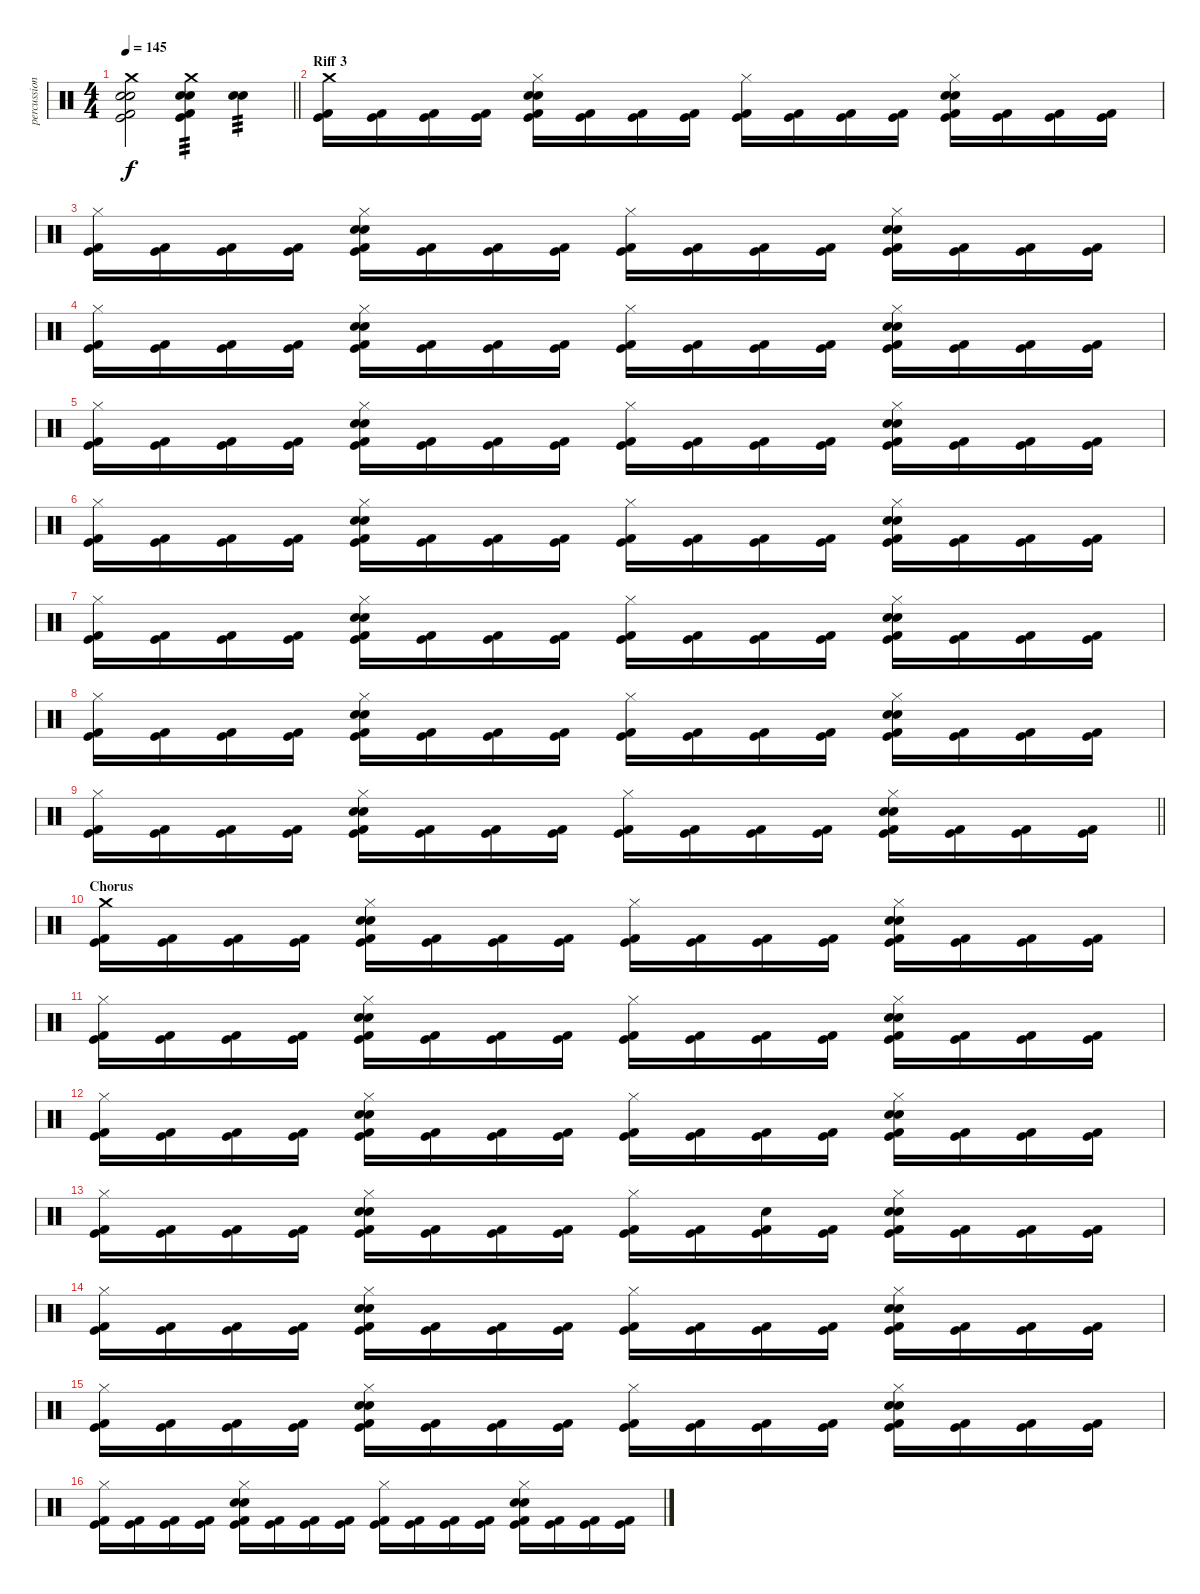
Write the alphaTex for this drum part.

\track ("percussion" "percussion") {instrument percussion}
\staff {score}
\articulation defaults
\ts (4 4)
\tempo 145
\clef neutral
\barLineRight lightlight
\ks c
("Crash medium (hit)" "Electric Snare (hit)" "Snare (hit) 2" "Kick (hit) 2" "Kick (hit)").2{dy f} ("Crash medium (hit)" "Electric Snare (hit)" "Snare (hit) 2" "Kick (hit)" "Kick (hit) 2").4{tp 3} ("Electric Snare (hit)" "Snare (hit) 2").4{tp 3} |
\section ("" "Riff 3")
("Crash medium (hit)" "Kick (hit) 2" "Kick (hit)").16 ("Kick (hit) 2" "Kick (hit)").16 ("Kick (hit) 2" "Kick (hit)").16 ("Kick (hit) 2" "Kick (hit)").16 ("Hi-Hat (closed)" "Electric Snare (hit)" "Snare (hit) 2" "Kick (hit) 2" "Kick (hit)").16 ("Kick (hit) 2" "Kick (hit)").16 ("Kick (hit) 2" "Kick (hit)").16 ("Kick (hit) 2" "Kick (hit)").16 ("Hi-Hat (closed)" "Kick (hit) 2" "Kick (hit)").16 ("Kick (hit) 2" "Kick (hit)").16 ("Kick (hit) 2" "Kick (hit)").16 ("Kick (hit) 2" "Kick (hit)").16 ("Hi-Hat (closed)" "Electric Snare (hit)" "Snare (hit) 2" "Kick (hit) 2" "Kick (hit)").16 ("Kick (hit) 2" "Kick (hit)").16 ("Kick (hit) 2" "Kick (hit)").16 ("Kick (hit) 2" "Kick (hit)").16 |
("Hi-Hat (closed)" "Kick (hit) 2" "Kick (hit)").16 ("Kick (hit) 2" "Kick (hit)").16 ("Kick (hit) 2" "Kick (hit)").16 ("Kick (hit) 2" "Kick (hit)").16 ("Hi-Hat (closed)" "Electric Snare (hit)" "Snare (hit) 2" "Kick (hit) 2" "Kick (hit)").16 ("Kick (hit) 2" "Kick (hit)").16 ("Kick (hit) 2" "Kick (hit)").16 ("Kick (hit) 2" "Kick (hit)").16 ("Hi-Hat (closed)" "Kick (hit) 2" "Kick (hit)").16 ("Kick (hit) 2" "Kick (hit)").16 ("Kick (hit) 2" "Kick (hit)").16 ("Kick (hit) 2" "Kick (hit)").16 ("Hi-Hat (closed)" "Electric Snare (hit)" "Snare (hit) 2" "Kick (hit) 2" "Kick (hit)").16 ("Kick (hit) 2" "Kick (hit)").16 ("Kick (hit) 2" "Kick (hit)").16 ("Kick (hit) 2" "Kick (hit)").16 |
("Hi-Hat (closed)" "Kick (hit) 2" "Kick (hit)").16 ("Kick (hit) 2" "Kick (hit)").16 ("Kick (hit) 2" "Kick (hit)").16 ("Kick (hit) 2" "Kick (hit)").16 ("Hi-Hat (closed)" "Electric Snare (hit)" "Snare (hit) 2" "Kick (hit) 2" "Kick (hit)").16 ("Kick (hit) 2" "Kick (hit)").16 ("Kick (hit) 2" "Kick (hit)").16 ("Kick (hit) 2" "Kick (hit)").16 ("Hi-Hat (closed)" "Kick (hit) 2" "Kick (hit)").16 ("Kick (hit) 2" "Kick (hit)").16 ("Kick (hit) 2" "Kick (hit)").16 ("Kick (hit) 2" "Kick (hit)").16 ("Hi-Hat (closed)" "Electric Snare (hit)" "Snare (hit) 2" "Kick (hit) 2" "Kick (hit)").16 ("Kick (hit) 2" "Kick (hit)").16 ("Kick (hit) 2" "Kick (hit)").16 ("Kick (hit) 2" "Kick (hit)").16 |
("Hi-Hat (closed)" "Kick (hit) 2" "Kick (hit)").16 ("Kick (hit) 2" "Kick (hit)").16 ("Kick (hit) 2" "Kick (hit)").16 ("Kick (hit) 2" "Kick (hit)").16 ("Hi-Hat (closed)" "Electric Snare (hit)" "Snare (hit) 2" "Kick (hit) 2" "Kick (hit)").16 ("Kick (hit) 2" "Kick (hit)").16 ("Kick (hit) 2" "Kick (hit)").16 ("Kick (hit) 2" "Kick (hit)").16 ("Hi-Hat (closed)" "Kick (hit) 2" "Kick (hit)").16 ("Kick (hit) 2" "Kick (hit)").16 ("Kick (hit) 2" "Kick (hit)").16 ("Kick (hit) 2" "Kick (hit)").16 ("Hi-Hat (closed)" "Electric Snare (hit)" "Snare (hit) 2" "Kick (hit) 2" "Kick (hit)").16 ("Kick (hit) 2" "Kick (hit)").16 ("Kick (hit) 2" "Kick (hit)").16 ("Kick (hit) 2" "Kick (hit)").16 |
("Hi-Hat (closed)" "Kick (hit) 2" "Kick (hit)").16 ("Kick (hit) 2" "Kick (hit)").16 ("Kick (hit) 2" "Kick (hit)").16 ("Kick (hit) 2" "Kick (hit)").16 ("Hi-Hat (closed)" "Electric Snare (hit)" "Snare (hit) 2" "Kick (hit) 2" "Kick (hit)").16 ("Kick (hit) 2" "Kick (hit)").16 ("Kick (hit) 2" "Kick (hit)").16 ("Kick (hit) 2" "Kick (hit)").16 ("Hi-Hat (closed)" "Kick (hit) 2" "Kick (hit)").16 ("Kick (hit) 2" "Kick (hit)").16 ("Kick (hit) 2" "Kick (hit)").16 ("Kick (hit) 2" "Kick (hit)").16 ("Hi-Hat (closed)" "Electric Snare (hit)" "Snare (hit) 2" "Kick (hit) 2" "Kick (hit)").16 ("Kick (hit) 2" "Kick (hit)").16 ("Kick (hit) 2" "Kick (hit)").16 ("Kick (hit) 2" "Kick (hit)").16 |
("Hi-Hat (closed)" "Kick (hit) 2" "Kick (hit)").16 ("Kick (hit) 2" "Kick (hit)").16 ("Kick (hit) 2" "Kick (hit)").16 ("Kick (hit) 2" "Kick (hit)").16 ("Hi-Hat (closed)" "Electric Snare (hit)" "Snare (hit) 2" "Kick (hit) 2" "Kick (hit)").16 ("Kick (hit) 2" "Kick (hit)").16 ("Kick (hit) 2" "Kick (hit)").16 ("Kick (hit) 2" "Kick (hit)").16 ("Hi-Hat (closed)" "Kick (hit) 2" "Kick (hit)").16 ("Kick (hit) 2" "Kick (hit)").16 ("Kick (hit) 2" "Kick (hit)").16 ("Kick (hit) 2" "Kick (hit)").16 ("Hi-Hat (closed)" "Electric Snare (hit)" "Snare (hit) 2" "Kick (hit) 2" "Kick (hit)").16 ("Kick (hit) 2" "Kick (hit)").16 ("Kick (hit) 2" "Kick (hit)").16 ("Kick (hit) 2" "Kick (hit)").16 |
("Hi-Hat (closed)" "Kick (hit) 2" "Kick (hit)").16 ("Kick (hit) 2" "Kick (hit)").16 ("Kick (hit) 2" "Kick (hit)").16 ("Kick (hit) 2" "Kick (hit)").16 ("Hi-Hat (closed)" "Electric Snare (hit)" "Snare (hit) 2" "Kick (hit) 2" "Kick (hit)").16 ("Kick (hit) 2" "Kick (hit)").16 ("Kick (hit) 2" "Kick (hit)").16 ("Kick (hit) 2" "Kick (hit)").16 ("Hi-Hat (closed)" "Kick (hit) 2" "Kick (hit)").16 ("Kick (hit) 2" "Kick (hit)").16 ("Kick (hit) 2" "Kick (hit)").16 ("Kick (hit) 2" "Kick (hit)").16 ("Hi-Hat (closed)" "Electric Snare (hit)" "Snare (hit) 2" "Kick (hit) 2" "Kick (hit)").16 ("Kick (hit) 2" "Kick (hit)").16 ("Kick (hit) 2" "Kick (hit)").16 ("Kick (hit) 2" "Kick (hit)").16 |
\barLineRight lightlight
("Hi-Hat (closed)" "Kick (hit) 2" "Kick (hit)").16 ("Kick (hit) 2" "Kick (hit)").16 ("Kick (hit) 2" "Kick (hit)").16 ("Kick (hit) 2" "Kick (hit)").16 ("Hi-Hat (closed)" "Electric Snare (hit)" "Snare (hit) 2" "Kick (hit) 2" "Kick (hit)").16 ("Kick (hit) 2" "Kick (hit)").16 ("Kick (hit) 2" "Kick (hit)").16 ("Kick (hit) 2" "Kick (hit)").16 ("Hi-Hat (closed)" "Kick (hit) 2" "Kick (hit)").16 ("Kick (hit) 2" "Kick (hit)").16 ("Kick (hit) 2" "Kick (hit)").16 ("Kick (hit) 2" "Kick (hit)").16 ("Hi-Hat (closed)" "Electric Snare (hit)" "Snare (hit) 2" "Kick (hit) 2" "Kick (hit)").16 ("Kick (hit) 2" "Kick (hit)").16 ("Kick (hit) 2" "Kick (hit)").16 ("Kick (hit) 2" "Kick (hit)").16 |
\section ("" "Chorus")
("Crash medium (hit)" "Kick (hit) 2" "Kick (hit)").16 ("Kick (hit) 2" "Kick (hit)").16 ("Kick (hit) 2" "Kick (hit)").16 ("Kick (hit) 2" "Kick (hit)").16 ("Hi-Hat (closed)" "Electric Snare (hit)" "Snare (hit) 2" "Kick (hit) 2" "Kick (hit)").16 ("Kick (hit) 2" "Kick (hit)").16 ("Kick (hit) 2" "Kick (hit)").16 ("Kick (hit) 2" "Kick (hit)").16 ("Hi-Hat (closed)" "Kick (hit) 2" "Kick (hit)").16 ("Kick (hit) 2" "Kick (hit)").16 ("Kick (hit) 2" "Kick (hit)").16 ("Kick (hit) 2" "Kick (hit)").16 ("Hi-Hat (closed)" "Electric Snare (hit)" "Snare (hit) 2" "Kick (hit) 2" "Kick (hit)").16 ("Kick (hit) 2" "Kick (hit)").16 ("Kick (hit) 2" "Kick (hit)").16 ("Kick (hit) 2" "Kick (hit)").16 |
("Hi-Hat (closed)" "Kick (hit) 2" "Kick (hit)").16 ("Kick (hit) 2" "Kick (hit)").16 ("Kick (hit) 2" "Kick (hit)").16 ("Kick (hit) 2" "Kick (hit)").16 ("Hi-Hat (closed)" "Electric Snare (hit)" "Snare (hit) 2" "Kick (hit) 2" "Kick (hit)").16 ("Kick (hit) 2" "Kick (hit)").16 ("Kick (hit) 2" "Kick (hit)").16 ("Kick (hit) 2" "Kick (hit)").16 ("Hi-Hat (closed)" "Kick (hit) 2" "Kick (hit)").16 ("Kick (hit) 2" "Kick (hit)").16 ("Kick (hit) 2" "Kick (hit)").16 ("Kick (hit) 2" "Kick (hit)").16 ("Hi-Hat (closed)" "Electric Snare (hit)" "Snare (hit) 2" "Kick (hit) 2" "Kick (hit)").16 ("Kick (hit) 2" "Kick (hit)").16 ("Kick (hit) 2" "Kick (hit)").16 ("Kick (hit) 2" "Kick (hit)").16 |
("Hi-Hat (closed)" "Kick (hit) 2" "Kick (hit)").16 ("Kick (hit) 2" "Kick (hit)").16 ("Kick (hit) 2" "Kick (hit)").16 ("Kick (hit) 2" "Kick (hit)").16 ("Hi-Hat (closed)" "Electric Snare (hit)" "Snare (hit) 2" "Kick (hit) 2" "Kick (hit)").16 ("Kick (hit) 2" "Kick (hit)").16 ("Kick (hit) 2" "Kick (hit)").16 ("Kick (hit) 2" "Kick (hit)").16 ("Hi-Hat (closed)" "Kick (hit) 2" "Kick (hit)").16 ("Kick (hit) 2" "Kick (hit)").16 ("Kick (hit) 2" "Kick (hit)").16 ("Kick (hit) 2" "Kick (hit)").16 ("Hi-Hat (closed)" "Electric Snare (hit)" "Snare (hit) 2" "Kick (hit) 2" "Kick (hit)").16 ("Kick (hit) 2" "Kick (hit)").16 ("Kick (hit) 2" "Kick (hit)").16 ("Kick (hit) 2" "Kick (hit)").16 |
("Hi-Hat (closed)" "Kick (hit) 2" "Kick (hit)").16 ("Kick (hit) 2" "Kick (hit)").16 ("Kick (hit) 2" "Kick (hit)").16 ("Kick (hit) 2" "Kick (hit)").16 ("Hi-Hat (closed)" "Electric Snare (hit)" "Snare (hit) 2" "Kick (hit) 2" "Kick (hit)").16 ("Kick (hit) 2" "Kick (hit)").16 ("Kick (hit) 2" "Kick (hit)").16 ("Kick (hit) 2" "Kick (hit)").16 ("Hi-Hat (closed)" "Kick (hit) 2" "Kick (hit)").16 ("Kick (hit) 2" "Kick (hit)").16 ("Electric Snare (hit)" "Kick (hit) 2" "Kick (hit)").16 ("Kick (hit) 2" "Kick (hit)").16 ("Hi-Hat (closed)" "Electric Snare (hit)" "Snare (hit) 2" "Kick (hit) 2" "Kick (hit)").16 ("Kick (hit) 2" "Kick (hit)").16 ("Kick (hit) 2" "Kick (hit)").16 ("Kick (hit) 2" "Kick (hit)").16 |
("Hi-Hat (closed)" "Kick (hit) 2" "Kick (hit)").16 ("Kick (hit) 2" "Kick (hit)").16 ("Kick (hit) 2" "Kick (hit)").16 ("Kick (hit) 2" "Kick (hit)").16 ("Hi-Hat (closed)" "Electric Snare (hit)" "Snare (hit) 2" "Kick (hit) 2" "Kick (hit)").16 ("Kick (hit) 2" "Kick (hit)").16 ("Kick (hit) 2" "Kick (hit)").16 ("Kick (hit) 2" "Kick (hit)").16 ("Hi-Hat (closed)" "Kick (hit) 2" "Kick (hit)").16 ("Kick (hit) 2" "Kick (hit)").16 ("Kick (hit) 2" "Kick (hit)").16 ("Kick (hit) 2" "Kick (hit)").16 ("Hi-Hat (closed)" "Electric Snare (hit)" "Snare (hit) 2" "Kick (hit) 2" "Kick (hit)").16 ("Kick (hit) 2" "Kick (hit)").16 ("Kick (hit) 2" "Kick (hit)").16 ("Kick (hit) 2" "Kick (hit)").16 |
("Hi-Hat (closed)" "Kick (hit) 2" "Kick (hit)").16 ("Kick (hit) 2" "Kick (hit)").16 ("Kick (hit) 2" "Kick (hit)").16 ("Kick (hit) 2" "Kick (hit)").16 ("Hi-Hat (closed)" "Electric Snare (hit)" "Snare (hit) 2" "Kick (hit) 2" "Kick (hit)").16 ("Kick (hit) 2" "Kick (hit)").16 ("Kick (hit) 2" "Kick (hit)").16 ("Kick (hit) 2" "Kick (hit)").16 ("Hi-Hat (closed)" "Kick (hit) 2" "Kick (hit)").16 ("Kick (hit) 2" "Kick (hit)").16 ("Kick (hit) 2" "Kick (hit)").16 ("Kick (hit) 2" "Kick (hit)").16 ("Hi-Hat (closed)" "Electric Snare (hit)" "Snare (hit) 2" "Kick (hit) 2" "Kick (hit)").16 ("Kick (hit) 2" "Kick (hit)").16 ("Kick (hit) 2" "Kick (hit)").16 ("Kick (hit) 2" "Kick (hit)").16 |
("Hi-Hat (closed)" "Kick (hit) 2" "Kick (hit)").16 ("Kick (hit) 2" "Kick (hit)").16 ("Kick (hit) 2" "Kick (hit)").16 ("Kick (hit) 2" "Kick (hit)").16 ("Hi-Hat (closed)" "Electric Snare (hit)" "Snare (hit) 2" "Kick (hit) 2" "Kick (hit)").16 ("Kick (hit) 2" "Kick (hit)").16 ("Kick (hit) 2" "Kick (hit)").16 ("Kick (hit) 2" "Kick (hit)").16 ("Hi-Hat (closed)" "Kick (hit) 2" "Kick (hit)").16 ("Kick (hit) 2" "Kick (hit)").16 ("Kick (hit) 2" "Kick (hit)").16 ("Kick (hit) 2" "Kick (hit)").16 ("Hi-Hat (closed)" "Electric Snare (hit)" "Snare (hit) 2" "Kick (hit) 2" "Kick (hit)").16 ("Kick (hit) 2" "Kick (hit)").16 ("Kick (hit) 2" "Kick (hit)").16 ("Kick (hit) 2" "Kick (hit)").16
